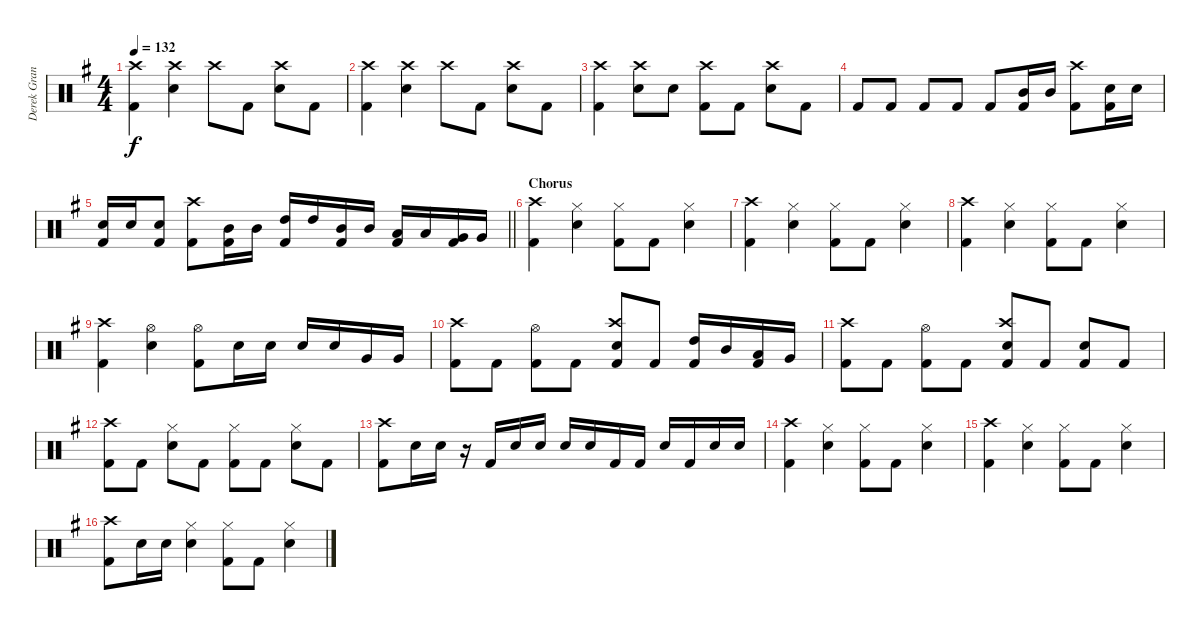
\track ("Derek Grant - Drums" "Derek Gran") {instrument percussion}
\staff {score}
\articulation defaults
\ts (4 4)
\tempo 132
\clef neutral
\ks g
("Kick (hit) 2" "Crash high (hit)").4{dy f} ("Snare (hit) 2" "Crash high (hit)").4 "Crash high (hit)".8 "Kick (hit) 2".8 ("Snare (hit) 2" "Crash high (hit)").8 "Kick (hit) 2".8 |
("Kick (hit) 2" "Crash high (hit)").4 ("Snare (hit) 2" "Crash high (hit)").4 "Crash high (hit)".8 "Kick (hit) 2".8 ("Snare (hit) 2" "Crash high (hit)").8 "Kick (hit) 2".8 |
("Kick (hit) 2" "Crash high (hit)").4 ("Snare (hit) 2" "Crash high (hit)").8 "Snare (hit) 2".8 ("Kick (hit) 2" "Crash high (hit)").8 "Kick (hit) 2".8 ("Snare (hit) 2" "Crash high (hit)").8 "Kick (hit) 2".8 |
"Kick (hit) 2".8 "Kick (hit) 2".8 "Kick (hit) 2".8 "Kick (hit) 2".8 "Kick (hit) 2".8 ("Kick (hit) 2" "Mid Tom (hit)").16 "Mid Tom (hit)".16 ("Kick (hit) 2" "Crash high (hit)").8 ("Kick (hit) 2" "Snare (hit) 2").16 "Snare (hit) 2".16 |
\barLineRight lightlight
("Kick (hit) 2" "Snare (hit) 2").16 "Snare (hit) 2".16 ("Kick (hit) 2" "Snare (hit) 2").8 ("Kick (hit) 2" "Crash high (hit)").8 ("Kick (hit) 2" "Mid Tom (hit)").16 "Mid Tom (hit)".16 ("Kick (hit) 2" "High Tom (hit)").16 "High Tom (hit)".16 ("Kick (hit) 2" "Mid Tom (hit)").16 "Mid Tom (hit)".16 ("Kick (hit) 2" "Low Tom (hit)").16 "Low Tom (hit)".16 ("Kick (hit) 2" "Very Low Tom (hit)").16 "Very Low Tom (hit)".16 |
\section ("" "Chorus")
("Kick (hit) 2" "Crash high (hit)").4 ("Snare (hit) 2" "Hi-Hat (closed)").4 ("Kick (hit) 2" "Hi-Hat (closed)").8 "Kick (hit) 2".8 ("Snare (hit) 2" "Hi-Hat (closed)").4 |
("Kick (hit) 2" "Crash high (hit)").4 ("Snare (hit) 2" "Hi-Hat (closed)").4 ("Kick (hit) 2" "Hi-Hat (closed)").8 "Kick (hit) 2".8 ("Snare (hit) 2" "Hi-Hat (closed)").4 |
("Kick (hit) 2" "Crash high (hit)").4 ("Snare (hit) 2" "Hi-Hat (closed)").4 ("Kick (hit) 2" "Hi-Hat (closed)").8 "Kick (hit) 2".8 ("Snare (hit) 2" "Hi-Hat (closed)").4 |
("Kick (hit) 2" "Crash high (hit)").4 ("Snare (hit) 2" "Hi-Hat (open)").4 ("Kick (hit) 2" "Hi-Hat (open)").8 "Snare (hit) 2".16 "Snare (hit) 2".16 "Snare (hit) 2".16 "Snare (hit) 2".16 "Very Low Tom (hit)".16 "Very Low Tom (hit)".16 |
("Kick (hit) 2" "Crash high (hit)").8 "Kick (hit) 2".8 ("Kick (hit) 2" "Hi-Hat (open)").8 "Kick (hit) 2".8 ("Kick (hit) 2" "Snare (hit) 2" "Crash high (hit)").8 "Kick (hit) 2".8 ("Kick (hit) 2" "High Tom (hit)").16 "Mid Tom (hit)".16 ("Kick (hit) 2" "Low Tom (hit)").16 "Very Low Tom (hit)".16 |
("Kick (hit) 2" "Crash high (hit)").8 "Kick (hit) 2".8 ("Kick (hit) 2" "Hi-Hat (open)").8 "Kick (hit) 2".8 ("Kick (hit) 2" "Snare (hit) 2" "Crash high (hit)").8 "Kick (hit) 2".8 ("Kick (hit) 2" "Snare (hit) 2").8 "Kick (hit) 2".8 |
("Kick (hit) 2" "Crash high (hit)").8 "Kick (hit) 2".8 ("Snare (hit) 2" "Hi-Hat (closed)").8 "Kick (hit) 2".8 ("Kick (hit) 2" "Hi-Hat (closed)").8 "Kick (hit) 2".8 ("Snare (hit) 2" "Hi-Hat (closed)").8 "Kick (hit) 2".8 |
("Kick (hit) 2" "Crash high (hit)").8 "Snare (hit) 2".16 "Snare (hit) 2".16 r.16 "Kick (hit) 2".16 "Snare (hit) 2".16 "Snare (hit) 2".16 "Snare (hit) 2".16 "Snare (hit) 2".16 "Kick (hit) 2".16 "Kick (hit) 2".16 "Snare (hit) 2".16 "Kick (hit) 2".16 "Snare (hit) 2".16 "Snare (hit) 2".16 |
("Kick (hit) 2" "Crash high (hit)").4 ("Snare (hit) 2" "Hi-Hat (closed)").4 ("Kick (hit) 2" "Hi-Hat (closed)").8 "Kick (hit) 2".8 ("Snare (hit) 2" "Hi-Hat (closed)").4 |
("Kick (hit) 2" "Crash high (hit)").4 ("Snare (hit) 2" "Hi-Hat (closed)").4 ("Kick (hit) 2" "Hi-Hat (closed)").8 "Kick (hit) 2".8 ("Snare (hit) 2" "Hi-Hat (closed)").4 |
("Kick (hit) 2" "Crash high (hit)").8 "Snare (hit) 2".16 "Snare (hit) 2".16 ("Snare (hit) 2" "Hi-Hat (closed)").4 ("Kick (hit) 2" "Hi-Hat (closed)").8 "Kick (hit) 2".8 ("Snare (hit) 2" "Hi-Hat (closed)").4
